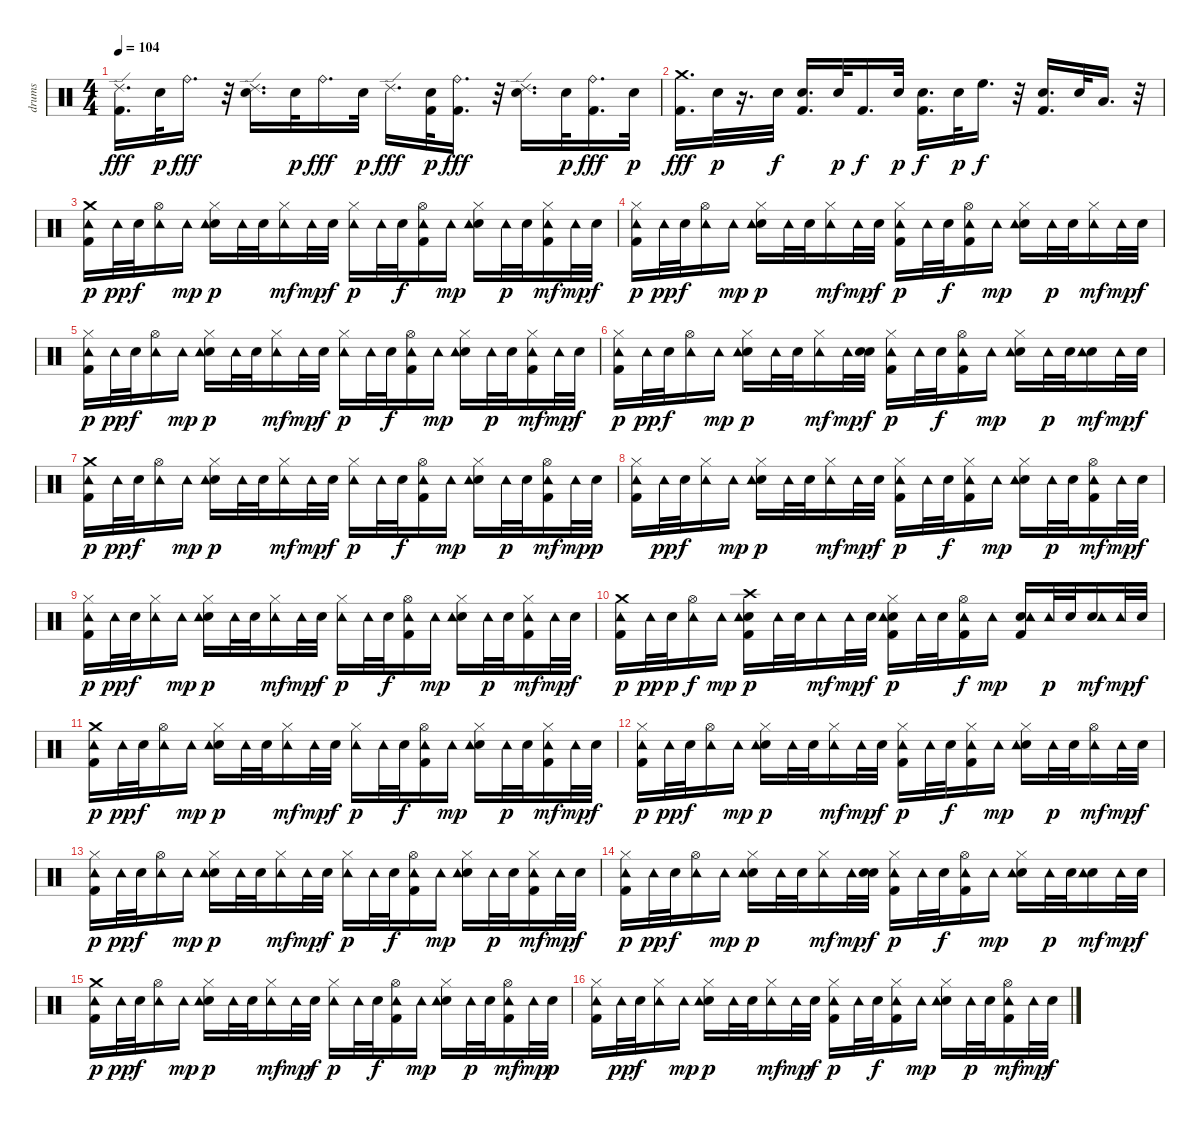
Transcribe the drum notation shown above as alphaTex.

\track ("drums" "drums") {instrument percussion}
\staff {score}
\articulation defaults
\ts (4 4)
\tempo 104
\clef neutral
\ks c
("Kick (hit) 2" "Ride (edge) 2").16{d dy fff} "Electric Snare (hit)".32{dy p} "Ride (bell)".16{d dy fff} r.32 ("Electric Snare (hit)" "Ride (edge) 2").16{d} "Electric Snare (hit)".32{dy p} "Ride (bell)".16{d dy fff} "Electric Snare (hit)".32{dy p} "Ride (edge) 2".16{d dy fff} ("Kick (hit) 2" "Electric Snare (hit)").32{dy p} ("Kick (hit) 2" "Ride (bell)").16{d dy fff} r.32 ("Electric Snare (hit)" "Ride (edge) 2").16{d} "Electric Snare (hit)".32{dy p} ("Kick (hit) 2" "Ride (bell)").16{d dy fff} "Electric Snare (hit)".32{dy p} |
("Kick (hit) 2" "Crash medium (hit)").16{d dy fff} "Electric Snare (hit)".32{dy p} r.16{d} "Electric Snare (hit)".32{dy f} ("Kick (hit) 2" "Electric Snare (hit)").16{d} "Electric Snare (hit)".32{dy p} "Kick (hit) 2".16{d dy f} "Electric Snare (hit)".32{dy p} ("Electric Snare (hit)" "Kick (hit) 2").16{d dy f} "Electric Snare (hit)".32{dy p} "High Floor Tom (hit)".16{d dy f} r.32 ("Kick (hit) 2" "Electric Snare (hit)").16{d} "Electric Snare (hit)".32 "Low Tom (hit)".16{d} r.32 |
("Kick (hit) 2" "Crash medium (hit)" "Tambourine (hit)").16{dy p} "Tambourine (hit)".32{dy pp} "Electric Snare (hit)".32{dy f} ("Hi-Hat (open)" "Tambourine (hit)").16 "Tambourine (hit)".16{dy mp} ("Electric Snare (hit)" "Hi-Hat (closed)" "Tambourine (hit)").16{dy p} "Tambourine (hit)".32 "Electric Snare (hit)".32 ("Hi-Hat (closed)" "Tambourine (hit)").16{dy mf} "Tambourine (hit)".32{dy mp} "Electric Snare (hit)".32{dy f} ("Hi-Hat (closed)" "Tambourine (hit)").16{dy p} "Tambourine (hit)".32 "Electric Snare (hit)".32{dy f} ("Kick (hit) 2" "Hi-Hat (open)" "Tambourine (hit)").16 "Tambourine (hit)".16{dy mp} ("Electric Snare (hit)" "Hi-Hat (closed)" "Tambourine (hit)").16 "Tambourine (hit)".32{dy p} "Electric Snare (hit)".32 ("Kick (hit) 2" "Hi-Hat (closed)" "Tambourine (hit)").16{dy mf} "Tambourine (hit)".32{dy mp} "Electric Snare (hit)".32{dy f} |
("Kick (hit) 2" "Hi-Hat (closed)" "Tambourine (hit)").16{dy p} "Tambourine (hit)".32{dy pp} "Electric Snare (hit)".32{dy f} ("Hi-Hat (open)" "Tambourine (hit)").16 "Tambourine (hit)".16{dy mp} ("Electric Snare (hit)" "Hi-Hat (closed)" "Tambourine (hit)").16{dy p} "Tambourine (hit)".32 "Electric Snare (hit)".32 ("Hi-Hat (closed)" "Tambourine (hit)").16{dy mf} "Tambourine (hit)".32{dy mp} "Electric Snare (hit)".32{dy f} ("Kick (hit) 2" "Hi-Hat (closed)" "Tambourine (hit)").16{dy p} "Tambourine (hit)".32 "Electric Snare (hit)".32{dy f} ("Kick (hit) 2" "Hi-Hat (open)" "Tambourine (hit)").16 "Tambourine (hit)".16{dy mp} ("Electric Snare (hit)" "Hi-Hat (closed)" "Tambourine (hit)").16 "Tambourine (hit)".32{dy p} "Electric Snare (hit)".32 ("Hi-Hat (closed)" "Tambourine (hit)").16{dy mf} "Tambourine (hit)".32{dy mp} "Electric Snare (hit)".32{dy f} |
("Kick (hit) 2" "Hi-Hat (closed)" "Tambourine (hit)").16{dy p} "Tambourine (hit)".32{dy pp} "Electric Snare (hit)".32{dy f} ("Hi-Hat (open)" "Tambourine (hit)").16 "Tambourine (hit)".16{dy mp} ("Electric Snare (hit)" "Hi-Hat (closed)" "Tambourine (hit)").16{dy p} "Tambourine (hit)".32 "Electric Snare (hit)".32 ("Hi-Hat (closed)" "Tambourine (hit)").16{dy mf} "Tambourine (hit)".32{dy mp} "Electric Snare (hit)".32{dy f} ("Hi-Hat (closed)" "Tambourine (hit)").16{dy p} "Tambourine (hit)".32 "Electric Snare (hit)".32{dy f} ("Kick (hit) 2" "Hi-Hat (open)" "Tambourine (hit)").16 "Tambourine (hit)".16{dy mp} ("Electric Snare (hit)" "Hi-Hat (closed)" "Tambourine (hit)").16 "Tambourine (hit)".32{dy p} "Electric Snare (hit)".32 ("Kick (hit) 2" "Hi-Hat (closed)" "Tambourine (hit)").16{dy mf} "Tambourine (hit)".32{dy mp} "Electric Snare (hit)".32{dy f} |
("Kick (hit) 2" "Hi-Hat (closed)" "Tambourine (hit)").16{dy p} "Tambourine (hit)".32{dy pp} "Electric Snare (hit)".32{dy f} ("Hi-Hat (open)" "Tambourine (hit)").16 "Tambourine (hit)".16{dy mp} ("Electric Snare (hit)" "Hi-Hat (closed)" "Tambourine (hit)").16{dy p} "Tambourine (hit)".32 "Electric Snare (hit)".32 ("Hi-Hat (closed)" "Tambourine (hit)").16{dy mf} "Tambourine (hit)".32{dy mp} ("Electric Snare (hit)" "Electric Snare (hit)").32{dy f} ("Kick (hit) 2" "Hi-Hat (closed)" "Tambourine (hit)").16{dy p} "Tambourine (hit)".32 "Electric Snare (hit)".32{dy f} ("Kick (hit) 2" "Hi-Hat (open)" "Tambourine (hit)").16 "Tambourine (hit)".16{dy mp} ("Electric Snare (hit)" "Hi-Hat (closed)" "Tambourine (hit)").16 "Tambourine (hit)".32{dy p} "Electric Snare (hit)".32 ("Electric Snare (hit)" "Tambourine (hit)").16{dy mf} "Tambourine (hit)".32{dy mp} "Electric Snare (hit)".32{dy f} |
("Kick (hit) 2" "Crash medium (hit)" "Tambourine (hit)").16{dy p} "Tambourine (hit)".32{dy pp} "Electric Snare (hit)".32{dy f} ("Hi-Hat (open)" "Tambourine (hit)").16 "Tambourine (hit)".16{dy mp} ("Electric Snare (hit)" "Hi-Hat (closed)" "Tambourine (hit)").16{dy p} "Tambourine (hit)".32 "Electric Snare (hit)".32 ("Hi-Hat (closed)" "Tambourine (hit)").16{dy mf} "Tambourine (hit)".32{dy mp} "Electric Snare (hit)".32{dy f} ("Hi-Hat (closed)" "Tambourine (hit)").16{dy p} "Tambourine (hit)".32 "Electric Snare (hit)".32{dy f} ("Kick (hit) 2" "Hi-Hat (open)" "Tambourine (hit)").16 "Tambourine (hit)".16{dy mp} ("Electric Snare (hit)" "Hi-Hat (closed)" "Tambourine (hit)").16 "Tambourine (hit)".32{dy p} "Electric Snare (hit)".32 ("Kick (hit) 2" "Hi-Hat (open)" "Tambourine (hit)").16{dy mf} "Tambourine (hit)".32{dy mp} "Electric Snare (hit)".32{dy p} |
("Kick (hit) 2" "Hi-Hat (closed)" "Tambourine (hit)").16 "Tambourine (hit)".32{dy pp} "Electric Snare (hit)".32{dy f} ("Hi-Hat (closed)" "Tambourine (hit)").16 "Tambourine (hit)".16{dy mp} ("Electric Snare (hit)" "Hi-Hat (closed)" "Tambourine (hit)").16{dy p} "Tambourine (hit)".32 "Electric Snare (hit)".32 ("Hi-Hat (closed)" "Tambourine (hit)").16{dy mf} "Tambourine (hit)".32{dy mp} "Electric Snare (hit)".32{dy f} ("Kick (hit) 2" "Hi-Hat (closed)" "Tambourine (hit)").16{dy p} "Tambourine (hit)".32 "Electric Snare (hit)".32{dy f} ("Kick (hit) 2" "Hi-Hat (closed)" "Tambourine (hit)").16 "Tambourine (hit)".16{dy mp} ("Electric Snare (hit)" "Hi-Hat (closed)" "Tambourine (hit)").16 "Tambourine (hit)".32{dy p} "Electric Snare (hit)".32 ("Kick (hit) 2" "Hi-Hat (open)" "Tambourine (hit)").16{dy mf} "Tambourine (hit)".32{dy mp} "Electric Snare (hit)".32{dy f} |
("Kick (hit) 2" "Hi-Hat (closed)" "Tambourine (hit)").16{dy p} "Tambourine (hit)".32{dy pp} "Electric Snare (hit)".32{dy f} ("Hi-Hat (closed)" "Tambourine (hit)").16 "Tambourine (hit)".16{dy mp} ("Electric Snare (hit)" "Hi-Hat (closed)" "Tambourine (hit)").16{dy p} "Tambourine (hit)".32 "Electric Snare (hit)".32 ("Hi-Hat (closed)" "Tambourine (hit)").16{dy mf} "Tambourine (hit)".32{dy mp} "Electric Snare (hit)".32{dy f} ("Hi-Hat (closed)" "Tambourine (hit)").16{dy p} "Tambourine (hit)".32 "Electric Snare (hit)".32{dy f} ("Kick (hit) 2" "Hi-Hat (open)" "Tambourine (hit)").16 "Tambourine (hit)".16{dy mp} ("Electric Snare (hit)" "Hi-Hat (closed)" "Tambourine (hit)").16 "Tambourine (hit)".32{dy p} "Electric Snare (hit)".32 ("Kick (hit) 2" "Hi-Hat (closed)" "Tambourine (hit)").16{dy mf} "Tambourine (hit)".32{dy mp} "Electric Snare (hit)".32{dy f} |
("Kick (hit) 2" "Crash medium (hit)" "Tambourine (hit)").16{dy p} "Tambourine (hit)".32{dy pp} "Electric Snare (hit)".32{dy p} ("Hi-Hat (open)" "Tambourine (hit)").16{dy f} "Tambourine (hit)".16{dy mp} ("Electric Snare (hit)" "Kick (hit) 2" "Crash high (hit)" "Tambourine (hit)").16{dy p} "Tambourine (hit)".32 "Electric Snare (hit)".32 "Tambourine (hit)".16{dy mf} "Tambourine (hit)".32{dy mp} "Electric Snare (hit)".32{dy f} ("Kick (hit) 2" "Electric Snare (hit)" "Hi-Hat (closed)" "Tambourine (hit)").16{dy p} "Tambourine (hit)".32 "Electric Snare (hit)".32 ("Kick (hit) 2" "Hi-Hat (open)" "Tambourine (hit)").16{dy f} "Tambourine (hit)".16{dy mp} ("Electric Snare (hit)" "Kick (hit) 2" "Tambourine (hit)").16 "Tambourine (hit)".32{dy p} "Electric Snare (hit)".32 ("Electric Snare (hit)" "Tambourine (hit)").16{dy mf} "Tambourine (hit)".32{dy mp} "Electric Snare (hit)".32{dy f} |
("Kick (hit) 2" "Crash medium (hit)" "Tambourine (hit)").16{dy p} "Tambourine (hit)".32{dy pp} "Electric Snare (hit)".32{dy f} ("Hi-Hat (open)" "Tambourine (hit)").16 "Tambourine (hit)".16{dy mp} ("Electric Snare (hit)" "Hi-Hat (closed)" "Tambourine (hit)").16{dy p} "Tambourine (hit)".32 "Electric Snare (hit)".32 ("Hi-Hat (closed)" "Tambourine (hit)").16{dy mf} "Tambourine (hit)".32{dy mp} "Electric Snare (hit)".32{dy f} ("Hi-Hat (closed)" "Tambourine (hit)").16{dy p} "Tambourine (hit)".32 "Electric Snare (hit)".32{dy f} ("Kick (hit) 2" "Hi-Hat (open)" "Tambourine (hit)").16 "Tambourine (hit)".16{dy mp} ("Electric Snare (hit)" "Hi-Hat (closed)" "Tambourine (hit)").16 "Tambourine (hit)".32{dy p} "Electric Snare (hit)".32 ("Kick (hit) 2" "Hi-Hat (closed)" "Tambourine (hit)").16{dy mf} "Tambourine (hit)".32{dy mp} "Electric Snare (hit)".32{dy f} |
("Kick (hit) 2" "Hi-Hat (closed)" "Tambourine (hit)").16{dy p} "Tambourine (hit)".32{dy pp} "Electric Snare (hit)".32{dy f} ("Hi-Hat (open)" "Tambourine (hit)").16 "Tambourine (hit)".16{dy mp} ("Electric Snare (hit)" "Hi-Hat (closed)" "Tambourine (hit)").16{dy p} "Tambourine (hit)".32 "Electric Snare (hit)".32 ("Hi-Hat (closed)" "Tambourine (hit)").16{dy mf} "Tambourine (hit)".32{dy mp} "Electric Snare (hit)".32{dy f} ("Kick (hit) 2" "Hi-Hat (closed)" "Tambourine (hit)").16{dy p} "Tambourine (hit)".32 "Electric Snare (hit)".32{dy f} ("Kick (hit) 2" "Hi-Hat (closed)" "Tambourine (hit)").16 "Tambourine (hit)".16{dy mp} ("Electric Snare (hit)" "Hi-Hat (closed)" "Tambourine (hit)").16 "Tambourine (hit)".32{dy p} "Electric Snare (hit)".32 ("Hi-Hat (open)" "Tambourine (hit)").16{dy mf} "Tambourine (hit)".32{dy mp} "Electric Snare (hit)".32{dy f} |
("Kick (hit) 2" "Hi-Hat (closed)" "Tambourine (hit)").16{dy p} "Tambourine (hit)".32{dy pp} "Electric Snare (hit)".32{dy f} ("Hi-Hat (open)" "Tambourine (hit)").16 "Tambourine (hit)".16{dy mp} ("Electric Snare (hit)" "Hi-Hat (closed)" "Tambourine (hit)").16{dy p} "Tambourine (hit)".32 "Electric Snare (hit)".32 ("Hi-Hat (closed)" "Tambourine (hit)").16{dy mf} "Tambourine (hit)".32{dy mp} "Electric Snare (hit)".32{dy f} ("Hi-Hat (closed)" "Tambourine (hit)").16{dy p} "Tambourine (hit)".32 "Electric Snare (hit)".32{dy f} ("Kick (hit) 2" "Hi-Hat (open)" "Tambourine (hit)").16 "Tambourine (hit)".16{dy mp} ("Electric Snare (hit)" "Hi-Hat (closed)" "Tambourine (hit)").16 "Tambourine (hit)".32{dy p} "Electric Snare (hit)".32 ("Kick (hit) 2" "Hi-Hat (closed)" "Tambourine (hit)").16{dy mf} "Tambourine (hit)".32{dy mp} "Electric Snare (hit)".32{dy f} |
("Kick (hit) 2" "Hi-Hat (closed)" "Tambourine (hit)").16{dy p} "Tambourine (hit)".32{dy pp} "Electric Snare (hit)".32{dy f} ("Hi-Hat (open)" "Tambourine (hit)").16 "Tambourine (hit)".16{dy mp} ("Electric Snare (hit)" "Hi-Hat (closed)" "Tambourine (hit)").16{dy p} "Tambourine (hit)".32 "Electric Snare (hit)".32 ("Hi-Hat (closed)" "Tambourine (hit)").16{dy mf} "Tambourine (hit)".32{dy mp} ("Electric Snare (hit)" "Electric Snare (hit)").32{dy f} ("Kick (hit) 2" "Hi-Hat (closed)" "Tambourine (hit)").16{dy p} "Tambourine (hit)".32 "Electric Snare (hit)".32{dy f} ("Kick (hit) 2" "Hi-Hat (open)" "Tambourine (hit)").16 "Tambourine (hit)".16{dy mp} ("Electric Snare (hit)" "Hi-Hat (closed)" "Tambourine (hit)").16 "Tambourine (hit)".32{dy p} "Electric Snare (hit)".32 ("Electric Snare (hit)" "Tambourine (hit)").16{dy mf} "Tambourine (hit)".32{dy mp} "Electric Snare (hit)".32{dy f} |
("Kick (hit) 2" "Crash medium (hit)" "Tambourine (hit)").16{dy p} "Tambourine (hit)".32{dy pp} "Electric Snare (hit)".32{dy f} ("Hi-Hat (open)" "Tambourine (hit)").16 "Tambourine (hit)".16{dy mp} ("Electric Snare (hit)" "Hi-Hat (closed)" "Tambourine (hit)").16{dy p} "Tambourine (hit)".32 "Electric Snare (hit)".32 ("Hi-Hat (closed)" "Tambourine (hit)").16{dy mf} "Tambourine (hit)".32{dy mp} "Electric Snare (hit)".32{dy f} ("Hi-Hat (closed)" "Tambourine (hit)").16{dy p} "Tambourine (hit)".32 "Electric Snare (hit)".32{dy f} ("Kick (hit) 2" "Hi-Hat (open)" "Tambourine (hit)").16 "Tambourine (hit)".16{dy mp} ("Electric Snare (hit)" "Hi-Hat (closed)" "Tambourine (hit)").16 "Tambourine (hit)".32{dy p} "Electric Snare (hit)".32 ("Kick (hit) 2" "Hi-Hat (open)" "Tambourine (hit)").16{dy mf} "Tambourine (hit)".32{dy mp} "Electric Snare (hit)".32{dy p} |
("Kick (hit) 2" "Hi-Hat (closed)" "Tambourine (hit)").16 "Tambourine (hit)".32{dy pp} "Electric Snare (hit)".32{dy f} ("Hi-Hat (closed)" "Tambourine (hit)").16 "Tambourine (hit)".16{dy mp} ("Electric Snare (hit)" "Hi-Hat (closed)" "Tambourine (hit)").16{dy p} "Tambourine (hit)".32 "Electric Snare (hit)".32 ("Hi-Hat (closed)" "Tambourine (hit)").16{dy mf} "Tambourine (hit)".32{dy mp} "Electric Snare (hit)".32{dy f} ("Kick (hit) 2" "Hi-Hat (closed)" "Tambourine (hit)").16{dy p} "Tambourine (hit)".32 "Electric Snare (hit)".32{dy f} ("Kick (hit) 2" "Hi-Hat (closed)" "Tambourine (hit)").16 "Tambourine (hit)".16{dy mp} ("Electric Snare (hit)" "Hi-Hat (closed)" "Tambourine (hit)").16 "Tambourine (hit)".32{dy p} "Electric Snare (hit)".32 ("Kick (hit) 2" "Hi-Hat (open)" "Tambourine (hit)").16{dy mf} "Tambourine (hit)".32{dy mp} "Electric Snare (hit)".32{dy f}
